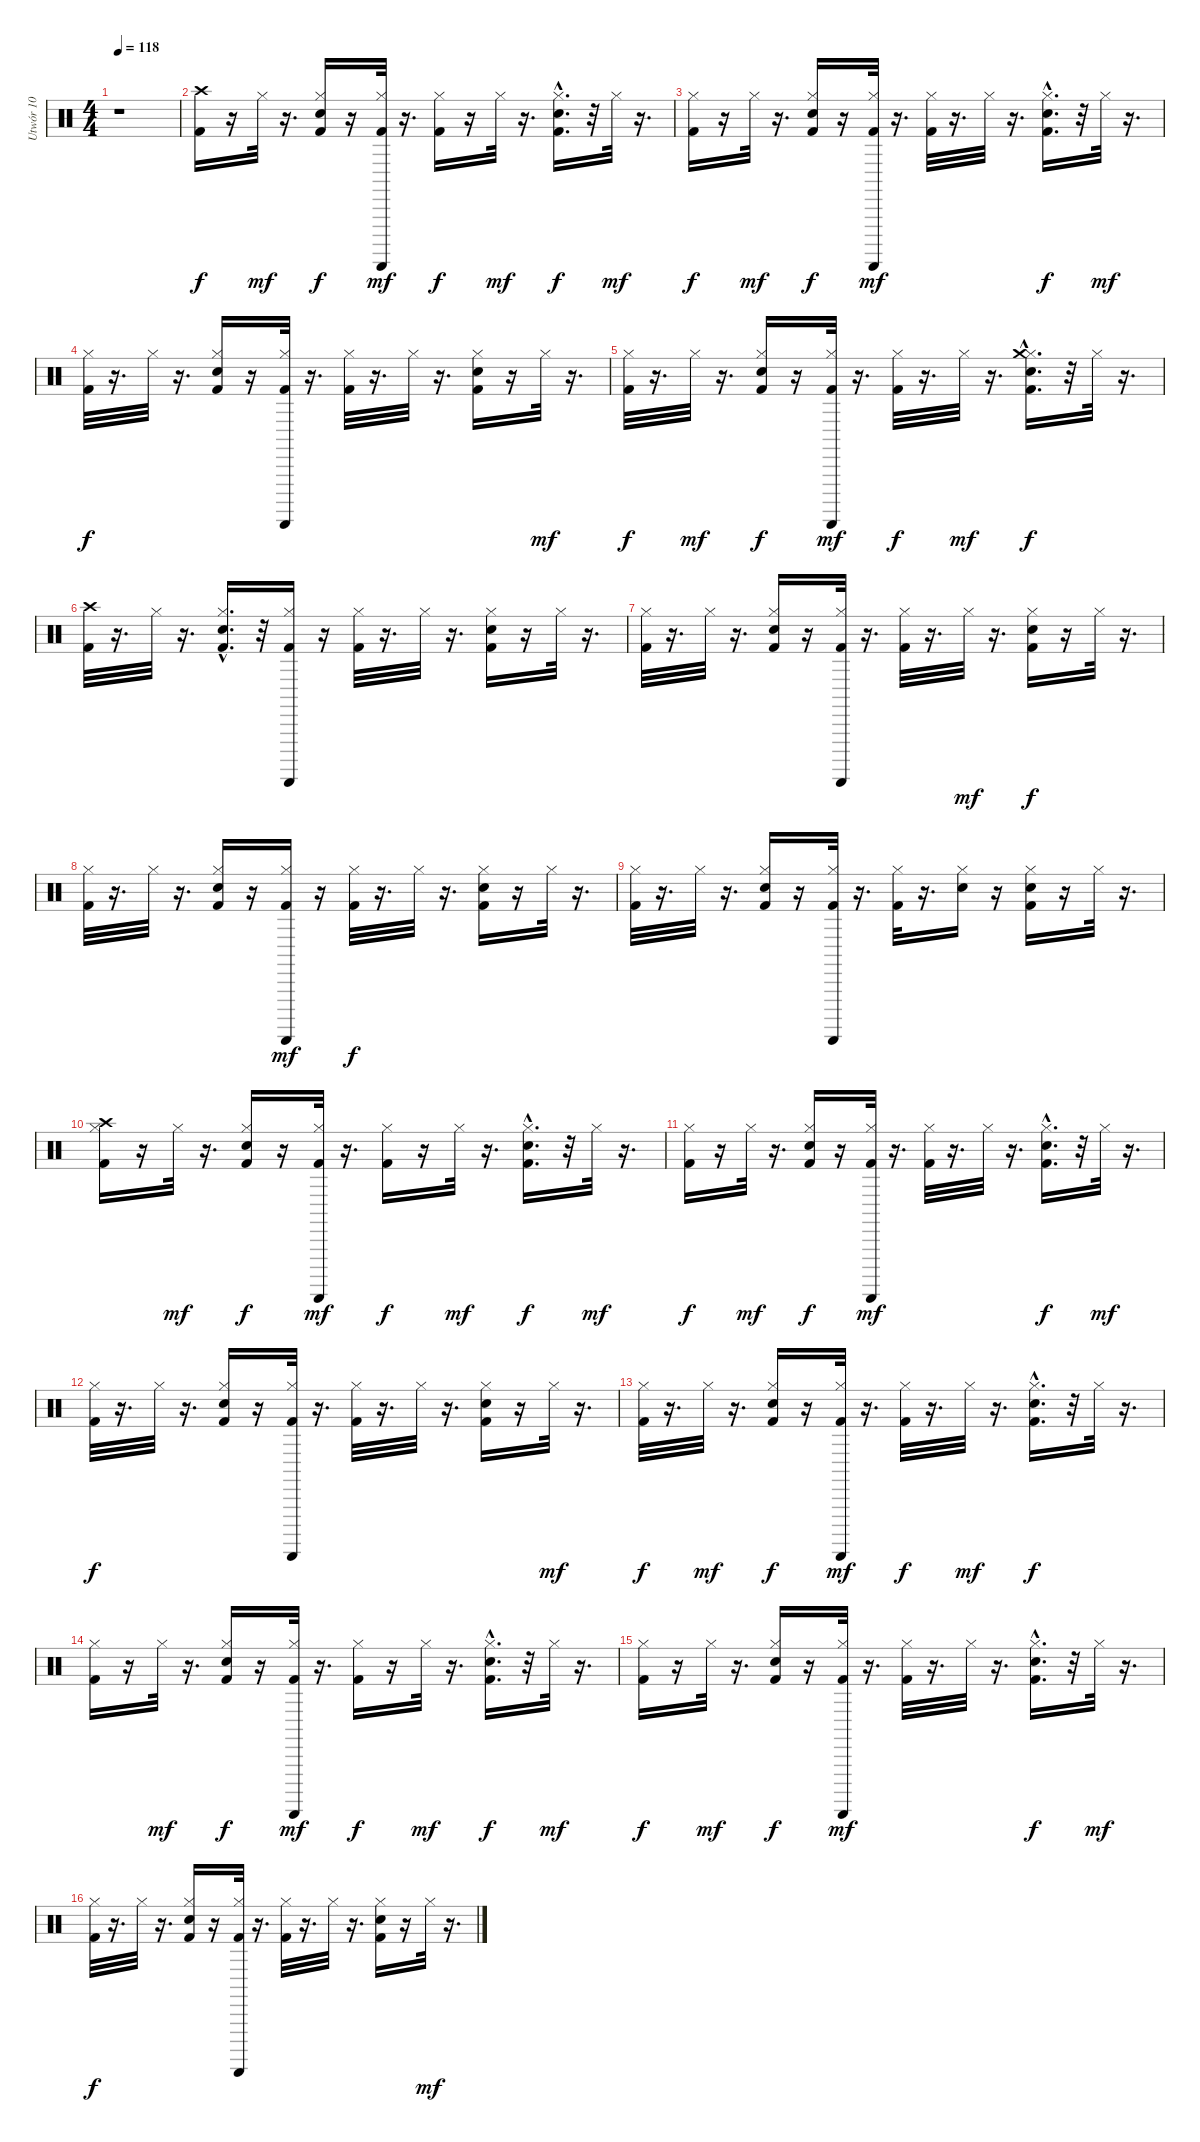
\track ("Utwór 10" "Utwór 10") {instrument percussion}
\staff {score}
\articulation defaults
\ts (4 4)
\tempo 118
\clef neutral
\ks c
r.1{dy f} |
("Kick (hit) 2" "Crash high (hit)").16 r.16 "Hi-Hat (closed)".32{dy mf} r.16{d} ("Kick (hit) 2" "Snare (hit) 2" "Hi-Hat (closed)").16{dy f} r.16 ("Kick (hit) 2" "Hi-Hat (closed)" "Guiro (scrap-return)").32{dy mf} r.16{d} ("Kick (hit) 2" "Hi-Hat (closed)").16{dy f} r.16 "Hi-Hat (closed)".32{dy mf} r.16{d} ("Kick (hit) 2" "Snare (hit) 2"{hac} "Hi-Hat (closed)").16{d dy f} r.32 "Hi-Hat (closed)".32{dy mf} r.16{d} |
("Kick (hit) 2" "Hi-Hat (closed)").16{dy f} r.16 "Hi-Hat (closed)".32{dy mf} r.16{d} ("Kick (hit) 2" "Snare (hit) 2" "Hi-Hat (closed)").16{dy f} r.16 ("Kick (hit) 2" "Hi-Hat (closed)" "Guiro (scrap-return)").32{dy mf} r.16{d} ("Kick (hit) 2" "Hi-Hat (closed)").32 r.16{d} "Hi-Hat (closed)".32 r.16{d} ("Kick (hit) 2" "Snare (hit) 2"{hac} "Hi-Hat (closed)").16{d dy f} r.32 "Hi-Hat (closed)".32{dy mf} r.16{d} |
("Kick (hit) 2" "Hi-Hat (closed)").32{dy f} r.16{d} "Hi-Hat (closed)".32 r.16{d} ("Kick (hit) 2" "Snare (hit) 2" "Hi-Hat (closed)").16 r.16 ("Kick (hit) 2" "Hi-Hat (closed)" "Guiro (scrap-return)").32 r.16{d} ("Kick (hit) 2" "Hi-Hat (closed)").32 r.16{d} "Hi-Hat (closed)".32 r.16{d} ("Kick (hit) 2" "Snare (hit) 2" "Hi-Hat (closed)").16 r.16 "Hi-Hat (closed)".32{dy mf} r.16{d} |
("Kick (hit) 2" "Hi-Hat (closed)").32{dy f} r.16{d} "Hi-Hat (closed)".32{dy mf} r.16{d} ("Kick (hit) 2" "Snare (hit) 2" "Hi-Hat (closed)").16{dy f} r.16 ("Kick (hit) 2" "Hi-Hat (closed)" "Guiro (scrap-return)").32{dy mf} r.16{d} ("Kick (hit) 2" "Hi-Hat (closed)").32{dy f} r.16{d} "Hi-Hat (closed)".32{dy mf} r.16{d} ("Kick (hit) 2" "Snare (hit) 2"{hac} "Hi-Hat (closed)" "Crash medium (hit)").16{d dy f} r.32 "Hi-Hat (closed)".32 r.16{d} |
("Kick (hit) 2" "Crash high (hit)").32 r.16{d} "Hi-Hat (closed)".32 r.16{d} ("Kick (hit) 2" "Snare (hit) 2"{hac} "Hi-Hat (closed)").16{d} r.32 ("Kick (hit) 2" "Hi-Hat (closed)" "Guiro (scrap-return)").16 r.16 ("Kick (hit) 2" "Hi-Hat (closed)").32 r.16{d} "Hi-Hat (closed)".32 r.16{d} ("Kick (hit) 2" "Snare (hit) 2" "Hi-Hat (closed)").16 r.16 "Hi-Hat (closed)".32 r.16{d} |
("Kick (hit) 2" "Hi-Hat (closed)").32 r.16{d} "Hi-Hat (closed)".32 r.16{d} ("Kick (hit) 2" "Snare (hit) 2" "Hi-Hat (closed)").16 r.16 ("Kick (hit) 2" "Hi-Hat (closed)" "Guiro (scrap-return)").32 r.16{d} ("Kick (hit) 2" "Hi-Hat (closed)").32 r.16{d} "Hi-Hat (closed)".32{dy mf} r.16{d} ("Kick (hit) 2" "Snare (hit) 2" "Hi-Hat (closed)").16{dy f} r.16 "Hi-Hat (closed)".32 r.16{d} |
("Kick (hit) 2" "Hi-Hat (closed)").32 r.16{d} "Hi-Hat (closed)".32 r.16{d} ("Kick (hit) 2" "Snare (hit) 2" "Hi-Hat (closed)").16 r.16 ("Kick (hit) 2" "Hi-Hat (closed)" "Guiro (scrap-return)").16{dy mf} r.16 ("Kick (hit) 2" "Hi-Hat (closed)").32{dy f} r.16{d} "Hi-Hat (closed)".32 r.16{d} ("Kick (hit) 2" "Snare (hit) 2" "Hi-Hat (closed)").16 r.16 "Hi-Hat (closed)".32 r.16{d} |
("Kick (hit) 2" "Hi-Hat (closed)").32 r.16{d} "Hi-Hat (closed)".32 r.16{d} ("Kick (hit) 2" "Snare (hit) 2" "Hi-Hat (closed)").16 r.16 ("Kick (hit) 2" "Hi-Hat (closed)" "Guiro (scrap-return)").32 r.16{d} ("Kick (hit) 2" "Hi-Hat (closed)").32 r.16{d} ("Snare (hit) 2" "Hi-Hat (closed)").16 r.16 ("Kick (hit) 2" "Snare (hit) 2" "Hi-Hat (closed)").16 r.16 "Hi-Hat (closed)".32 r.16{d} |
("Kick (hit) 2" "Hi-Hat (closed)" "Crash high (hit)").16 r.16 "Hi-Hat (closed)".32{dy mf} r.16{d} ("Kick (hit) 2" "Snare (hit) 2" "Hi-Hat (closed)").16{dy f} r.16 ("Kick (hit) 2" "Hi-Hat (closed)" "Guiro (scrap-return)").32{dy mf} r.16{d} ("Kick (hit) 2" "Hi-Hat (closed)").16{dy f} r.16 "Hi-Hat (closed)".32{dy mf} r.16{d} ("Kick (hit) 2" "Snare (hit) 2"{hac} "Hi-Hat (closed)").16{d dy f} r.32 "Hi-Hat (closed)".32{dy mf} r.16{d} |
("Kick (hit) 2" "Hi-Hat (closed)").16{dy f} r.16 "Hi-Hat (closed)".32{dy mf} r.16{d} ("Kick (hit) 2" "Snare (hit) 2" "Hi-Hat (closed)").16{dy f} r.16 ("Kick (hit) 2" "Hi-Hat (closed)" "Guiro (scrap-return)").32{dy mf} r.16{d} ("Kick (hit) 2" "Hi-Hat (closed)").32 r.16{d} "Hi-Hat (closed)".32 r.16{d} ("Kick (hit) 2" "Snare (hit) 2"{hac} "Hi-Hat (closed)").16{d dy f} r.32 "Hi-Hat (closed)".32{dy mf} r.16{d} |
("Kick (hit) 2" "Hi-Hat (closed)").32{dy f} r.16{d} "Hi-Hat (closed)".32 r.16{d} ("Kick (hit) 2" "Snare (hit) 2" "Hi-Hat (closed)").16 r.16 ("Kick (hit) 2" "Hi-Hat (closed)" "Guiro (scrap-return)").32 r.16{d} ("Kick (hit) 2" "Hi-Hat (closed)").32 r.16{d} "Hi-Hat (closed)".32 r.16{d} ("Kick (hit) 2" "Snare (hit) 2" "Hi-Hat (closed)").16 r.16 "Hi-Hat (closed)".32{dy mf} r.16{d} |
("Kick (hit) 2" "Hi-Hat (closed)").32{dy f} r.16{d} "Hi-Hat (closed)".32{dy mf} r.16{d} ("Kick (hit) 2" "Snare (hit) 2" "Hi-Hat (closed)").16{dy f} r.16 ("Kick (hit) 2" "Hi-Hat (closed)" "Guiro (scrap-return)").32{dy mf} r.16{d} ("Kick (hit) 2" "Hi-Hat (closed)").32{dy f} r.16{d} "Hi-Hat (closed)".32{dy mf} r.16{d} ("Kick (hit) 2" "Snare (hit) 2"{hac} "Hi-Hat (closed)").16{d dy f} r.32 "Hi-Hat (closed)".32 r.16{d} |
("Kick (hit) 2" "Hi-Hat (closed)").16 r.16 "Hi-Hat (closed)".32{dy mf} r.16{d} ("Kick (hit) 2" "Snare (hit) 2" "Hi-Hat (closed)").16{dy f} r.16 ("Kick (hit) 2" "Hi-Hat (closed)" "Guiro (scrap-return)").32{dy mf} r.16{d} ("Kick (hit) 2" "Hi-Hat (closed)").16{dy f} r.16 "Hi-Hat (closed)".32{dy mf} r.16{d} ("Kick (hit) 2" "Snare (hit) 2"{hac} "Hi-Hat (closed)").16{d dy f} r.32 "Hi-Hat (closed)".32{dy mf} r.16{d} |
("Kick (hit) 2" "Hi-Hat (closed)").16{dy f} r.16 "Hi-Hat (closed)".32{dy mf} r.16{d} ("Kick (hit) 2" "Snare (hit) 2" "Hi-Hat (closed)").16{dy f} r.16 ("Kick (hit) 2" "Hi-Hat (closed)" "Guiro (scrap-return)").32{dy mf} r.16{d} ("Kick (hit) 2" "Hi-Hat (closed)").32 r.16{d} "Hi-Hat (closed)".32 r.16{d} ("Kick (hit) 2" "Snare (hit) 2"{hac} "Hi-Hat (closed)").16{d dy f} r.32 "Hi-Hat (closed)".32{dy mf} r.16{d} |
("Kick (hit) 2" "Hi-Hat (closed)").32{dy f} r.16{d} "Hi-Hat (closed)".32 r.16{d} ("Kick (hit) 2" "Snare (hit) 2" "Hi-Hat (closed)").16 r.16 ("Kick (hit) 2" "Hi-Hat (closed)" "Guiro (scrap-return)").32 r.16{d} ("Kick (hit) 2" "Hi-Hat (closed)").32 r.16{d} "Hi-Hat (closed)".32 r.16{d} ("Kick (hit) 2" "Snare (hit) 2" "Hi-Hat (closed)").16 r.16 "Hi-Hat (closed)".32{dy mf} r.16{d}
